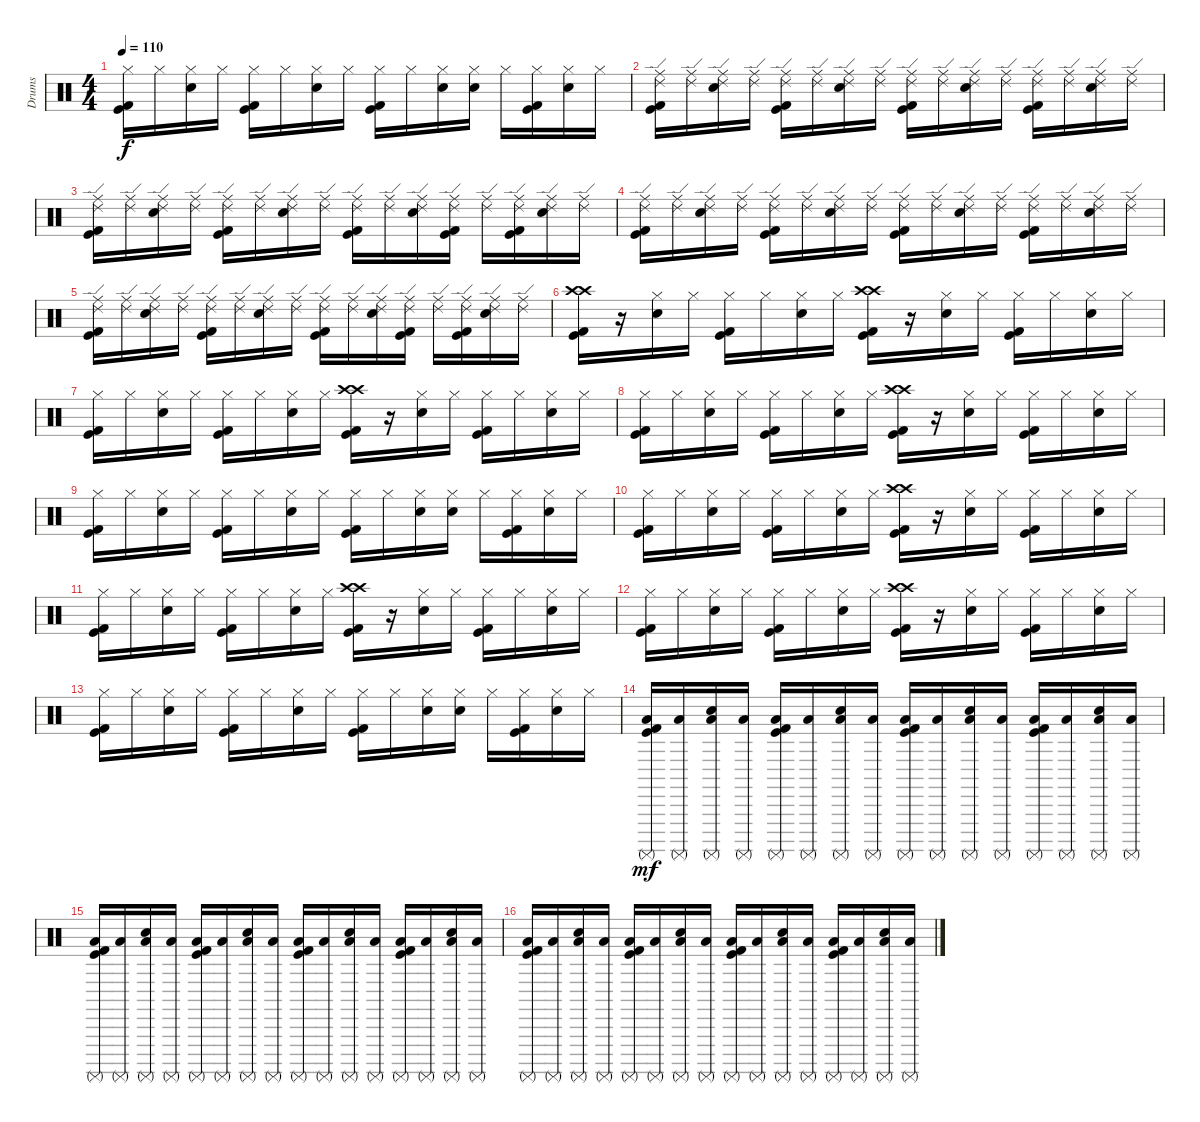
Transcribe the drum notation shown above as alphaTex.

\track ("Drums" "Drums") {instrument percussion}
\staff {score}
\articulation defaults
\ts (4 4)
\tempo 110
\clef neutral
\ks c
("Hi-Hat (closed)" "Kick (hit) 2" "Kick (hit)").16{dy f} "Hi-Hat (closed)".16 ("Hi-Hat (closed)" "Snare (hit) 2").16 "Hi-Hat (closed)".16 ("Hi-Hat (closed)" "Kick (hit) 2" "Kick (hit)").16 "Hi-Hat (closed)".16 ("Hi-Hat (closed)" "Snare (hit) 2").16 "Hi-Hat (closed)".16 ("Hi-Hat (closed)" "Kick (hit) 2" "Kick (hit)").16 "Hi-Hat (closed)".16 ("Hi-Hat (closed)" "Snare (hit) 2").16 ("Hi-Hat (closed)" "Snare (hit) 2").16 "Hi-Hat (closed)".16 ("Hi-Hat (closed)" "Kick (hit) 2" "Kick (hit)").16 ("Hi-Hat (closed)" "Snare (hit) 2").16 "Hi-Hat (closed)".16 |
("Ride (middle)" "Ride (edge) 2" "Kick (hit) 2" "Kick (hit)").16 ("Ride (middle)" "Ride (edge) 2").16 ("Ride (middle)" "Ride (edge) 2" "Snare (hit) 2").16 ("Ride (middle)" "Ride (edge) 2").16 ("Ride (middle)" "Ride (edge) 2" "Kick (hit) 2" "Kick (hit)").16 ("Ride (middle)" "Ride (edge) 2").16 ("Ride (middle)" "Ride (edge) 2" "Snare (hit) 2").16 ("Ride (middle)" "Ride (edge) 2").16 ("Ride (middle)" "Ride (edge) 2" "Kick (hit) 2" "Kick (hit)").16 ("Ride (middle)" "Ride (edge) 2").16 ("Ride (middle)" "Ride (edge) 2" "Snare (hit) 2").16 ("Ride (middle)" "Ride (edge) 2").16 ("Ride (middle)" "Ride (edge) 2" "Kick (hit) 2" "Kick (hit)").16 ("Ride (middle)" "Ride (edge) 2").16 ("Ride (middle)" "Ride (edge) 2" "Snare (hit) 2").16 ("Ride (middle)" "Ride (edge) 2").16 |
("Ride (middle)" "Ride (edge) 2" "Kick (hit) 2" "Kick (hit)").16 ("Ride (middle)" "Ride (edge) 2").16 ("Ride (middle)" "Ride (edge) 2" "Snare (hit) 2").16 ("Ride (middle)" "Ride (edge) 2").16 ("Ride (middle)" "Ride (edge) 2" "Kick (hit) 2" "Kick (hit)").16 ("Ride (middle)" "Ride (edge) 2").16 ("Ride (middle)" "Ride (edge) 2" "Snare (hit) 2").16 ("Ride (middle)" "Ride (edge) 2").16 ("Ride (middle)" "Ride (edge) 2" "Kick (hit) 2" "Kick (hit)").16 ("Ride (middle)" "Ride (edge) 2").16 ("Ride (middle)" "Ride (edge) 2" "Snare (hit) 2").16 ("Ride (middle)" "Ride (edge) 2" "Kick (hit) 2" "Kick (hit)").16 ("Ride (middle)" "Ride (edge) 2").16 ("Ride (middle)" "Ride (edge) 2" "Kick (hit) 2" "Kick (hit)").16 ("Ride (middle)" "Ride (edge) 2" "Snare (hit) 2").16 ("Ride (middle)" "Ride (edge) 2").16 |
("Ride (middle)" "Ride (edge) 2" "Kick (hit) 2" "Kick (hit)").16 ("Ride (middle)" "Ride (edge) 2").16 ("Ride (middle)" "Ride (edge) 2" "Snare (hit) 2").16 ("Ride (middle)" "Ride (edge) 2").16 ("Ride (middle)" "Ride (edge) 2" "Kick (hit) 2" "Kick (hit)").16 ("Ride (middle)" "Ride (edge) 2").16 ("Ride (middle)" "Ride (edge) 2" "Snare (hit) 2").16 ("Ride (middle)" "Ride (edge) 2").16 ("Ride (middle)" "Ride (edge) 2" "Kick (hit) 2" "Kick (hit)").16 ("Ride (middle)" "Ride (edge) 2").16 ("Ride (middle)" "Ride (edge) 2" "Snare (hit) 2").16 ("Ride (middle)" "Ride (edge) 2").16 ("Ride (middle)" "Ride (edge) 2" "Kick (hit) 2" "Kick (hit)").16 ("Ride (middle)" "Ride (edge) 2").16 ("Ride (middle)" "Ride (edge) 2" "Snare (hit) 2").16 ("Ride (middle)" "Ride (edge) 2").16 |
("Ride (middle)" "Ride (edge) 2" "Kick (hit) 2" "Kick (hit)").16 ("Ride (middle)" "Ride (edge) 2").16 ("Ride (middle)" "Ride (edge) 2" "Snare (hit) 2").16 ("Ride (middle)" "Ride (edge) 2").16 ("Ride (middle)" "Ride (edge) 2" "Kick (hit) 2" "Kick (hit)").16 ("Ride (middle)" "Ride (edge) 2").16 ("Ride (middle)" "Ride (edge) 2" "Snare (hit) 2").16 ("Ride (middle)" "Ride (edge) 2").16 ("Ride (middle)" "Ride (edge) 2" "Kick (hit) 2" "Kick (hit)").16 ("Ride (middle)" "Ride (edge) 2").16 ("Ride (middle)" "Ride (edge) 2" "Snare (hit) 2").16 ("Ride (middle)" "Ride (edge) 2" "Kick (hit) 2" "Kick (hit)").16 ("Ride (middle)" "Ride (edge) 2").16 ("Ride (middle)" "Ride (edge) 2" "Kick (hit) 2" "Kick (hit)").16 ("Ride (middle)" "Ride (edge) 2" "Snare (hit) 2").16 ("Ride (middle)" "Ride (edge) 2").16 |
("Crash high (hit)" "Crash high (hit)" "Kick (hit) 2" "Kick (hit)").16 r.16 ("Hi-Hat (closed)" "Snare (hit) 2").16 "Hi-Hat (closed)".16 ("Hi-Hat (closed)" "Kick (hit) 2" "Kick (hit)").16 "Hi-Hat (closed)".16 ("Hi-Hat (closed)" "Snare (hit) 2").16 "Hi-Hat (closed)".16 ("Crash high (hit)" "Crash high (hit)" "Kick (hit) 2" "Kick (hit)").16 r.16 ("Hi-Hat (closed)" "Snare (hit) 2").16 "Hi-Hat (closed)".16 ("Hi-Hat (closed)" "Kick (hit) 2" "Kick (hit)").16 "Hi-Hat (closed)".16 ("Hi-Hat (closed)" "Snare (hit) 2").16 "Hi-Hat (closed)".16 |
("Hi-Hat (closed)" "Kick (hit) 2" "Kick (hit)").16 "Hi-Hat (closed)".16 ("Hi-Hat (closed)" "Snare (hit) 2").16 "Hi-Hat (closed)".16 ("Hi-Hat (closed)" "Kick (hit) 2" "Kick (hit)").16 "Hi-Hat (closed)".16 ("Hi-Hat (closed)" "Snare (hit) 2").16 "Hi-Hat (closed)".16 ("Crash high (hit)" "Crash high (hit)" "Kick (hit) 2" "Kick (hit)").16 r.16 ("Hi-Hat (closed)" "Snare (hit) 2").16 "Hi-Hat (closed)".16 ("Hi-Hat (closed)" "Kick (hit) 2" "Kick (hit)").16 "Hi-Hat (closed)".16 ("Hi-Hat (closed)" "Snare (hit) 2").16 "Hi-Hat (closed)".16 |
("Hi-Hat (closed)" "Kick (hit) 2" "Kick (hit)").16 "Hi-Hat (closed)".16 ("Hi-Hat (closed)" "Snare (hit) 2").16 "Hi-Hat (closed)".16 ("Hi-Hat (closed)" "Kick (hit) 2" "Kick (hit)").16 "Hi-Hat (closed)".16 ("Hi-Hat (closed)" "Snare (hit) 2").16 "Hi-Hat (closed)".16 ("Crash high (hit)" "Crash high (hit)" "Kick (hit) 2" "Kick (hit)").16 r.16 ("Hi-Hat (closed)" "Snare (hit) 2").16 "Hi-Hat (closed)".16 ("Hi-Hat (closed)" "Kick (hit) 2" "Kick (hit)").16 "Hi-Hat (closed)".16 ("Hi-Hat (closed)" "Snare (hit) 2").16 "Hi-Hat (closed)".16 |
("Hi-Hat (closed)" "Kick (hit) 2" "Kick (hit)").16 "Hi-Hat (closed)".16 ("Hi-Hat (closed)" "Snare (hit) 2").16 "Hi-Hat (closed)".16 ("Hi-Hat (closed)" "Kick (hit) 2" "Kick (hit)").16 "Hi-Hat (closed)".16 ("Hi-Hat (closed)" "Snare (hit) 2").16 "Hi-Hat (closed)".16 ("Hi-Hat (closed)" "Kick (hit) 2" "Kick (hit)").16 "Hi-Hat (closed)".16 ("Hi-Hat (closed)" "Snare (hit) 2").16 ("Hi-Hat (closed)" "Snare (hit) 2").16 "Hi-Hat (closed)".16 ("Hi-Hat (closed)" "Kick (hit) 2" "Kick (hit)").16 ("Hi-Hat (closed)" "Snare (hit) 2").16 "Hi-Hat (closed)".16 |
("Hi-Hat (closed)" "Kick (hit) 2" "Kick (hit)").16 "Hi-Hat (closed)".16 ("Hi-Hat (closed)" "Snare (hit) 2").16 "Hi-Hat (closed)".16 ("Hi-Hat (closed)" "Kick (hit) 2" "Kick (hit)").16 "Hi-Hat (closed)".16 ("Hi-Hat (closed)" "Snare (hit) 2").16 "Hi-Hat (closed)".16 ("Crash high (hit)" "Crash high (hit)" "Kick (hit) 2" "Kick (hit)").16 r.16 ("Hi-Hat (closed)" "Snare (hit) 2").16 "Hi-Hat (closed)".16 ("Hi-Hat (closed)" "Kick (hit) 2" "Kick (hit)").16 "Hi-Hat (closed)".16 ("Hi-Hat (closed)" "Snare (hit) 2").16 "Hi-Hat (closed)".16 |
("Hi-Hat (closed)" "Kick (hit) 2" "Kick (hit)").16 "Hi-Hat (closed)".16 ("Hi-Hat (closed)" "Snare (hit) 2").16 "Hi-Hat (closed)".16 ("Hi-Hat (closed)" "Kick (hit) 2" "Kick (hit)").16 "Hi-Hat (closed)".16 ("Hi-Hat (closed)" "Snare (hit) 2").16 "Hi-Hat (closed)".16 ("Crash high (hit)" "Crash high (hit)" "Kick (hit) 2" "Kick (hit)").16 r.16 ("Hi-Hat (closed)" "Snare (hit) 2").16 "Hi-Hat (closed)".16 ("Hi-Hat (closed)" "Kick (hit) 2" "Kick (hit)").16 "Hi-Hat (closed)".16 ("Hi-Hat (closed)" "Snare (hit) 2").16 "Hi-Hat (closed)".16 |
("Hi-Hat (closed)" "Kick (hit) 2" "Kick (hit)").16 "Hi-Hat (closed)".16 ("Hi-Hat (closed)" "Snare (hit) 2").16 "Hi-Hat (closed)".16 ("Hi-Hat (closed)" "Kick (hit) 2" "Kick (hit)").16 "Hi-Hat (closed)".16 ("Hi-Hat (closed)" "Snare (hit) 2").16 "Hi-Hat (closed)".16 ("Crash high (hit)" "Crash high (hit)" "Kick (hit) 2" "Kick (hit)").16 r.16 ("Hi-Hat (closed)" "Snare (hit) 2").16 "Hi-Hat (closed)".16 ("Hi-Hat (closed)" "Kick (hit) 2" "Kick (hit)").16 "Hi-Hat (closed)".16 ("Hi-Hat (closed)" "Snare (hit) 2").16 "Hi-Hat (closed)".16 |
("Hi-Hat (closed)" "Kick (hit) 2" "Kick (hit)").16 "Hi-Hat (closed)".16 ("Hi-Hat (closed)" "Snare (hit) 2").16 "Hi-Hat (closed)".16 ("Hi-Hat (closed)" "Kick (hit) 2" "Kick (hit)").16 "Hi-Hat (closed)".16 ("Hi-Hat (closed)" "Snare (hit) 2").16 "Hi-Hat (closed)".16 ("Hi-Hat (closed)" "Kick (hit) 2" "Kick (hit)").16 "Hi-Hat (closed)".16 ("Hi-Hat (closed)" "Snare (hit) 2").16 ("Hi-Hat (closed)" "Snare (hit) 2").16 "Hi-Hat (closed)".16 ("Hi-Hat (closed)" "Kick (hit) 2" "Kick (hit)").16 ("Hi-Hat (closed)" "Snare (hit) 2").16 "Hi-Hat (closed)".16 |
("Surdo (mute)" "Low Floor Tom (hit)" "Kick (hit) 2" "Kick (hit)").16{dy mf} ("Surdo (mute)" "Low Floor Tom (hit)").16 ("Surdo (mute)" "Low Floor Tom (hit)" "Snare (hit) 2").16 ("Surdo (mute)" "Low Floor Tom (hit)").16 ("Surdo (mute)" "Low Floor Tom (hit)" "Kick (hit) 2" "Kick (hit)").16 ("Surdo (mute)" "Low Floor Tom (hit)").16 ("Surdo (mute)" "Low Floor Tom (hit)" "Snare (hit) 2").16 ("Surdo (mute)" "Low Floor Tom (hit)").16 ("Surdo (mute)" "Low Floor Tom (hit)" "Kick (hit) 2" "Kick (hit)").16 ("Surdo (mute)" "Low Floor Tom (hit)").16 ("Surdo (mute)" "Low Floor Tom (hit)" "Snare (hit) 2").16 ("Surdo (mute)" "Low Floor Tom (hit)").16 ("Surdo (mute)" "Low Floor Tom (hit)" "Kick (hit) 2" "Kick (hit)").16 ("Surdo (mute)" "Low Floor Tom (hit)").16 ("Surdo (mute)" "Low Floor Tom (hit)" "Snare (hit) 2").16 ("Surdo (mute)" "Low Floor Tom (hit)").16 |
("Surdo (mute)" "Low Floor Tom (hit)" "Kick (hit) 2" "Kick (hit)").16 ("Surdo (mute)" "Low Floor Tom (hit)").16 ("Surdo (mute)" "Low Floor Tom (hit)" "Snare (hit) 2").16 ("Surdo (mute)" "Low Floor Tom (hit)").16 ("Surdo (mute)" "Low Floor Tom (hit)" "Kick (hit) 2" "Kick (hit)").16 ("Surdo (mute)" "Low Floor Tom (hit)").16 ("Surdo (mute)" "Low Floor Tom (hit)" "Snare (hit) 2").16 ("Surdo (mute)" "Low Floor Tom (hit)").16 ("Surdo (mute)" "Low Floor Tom (hit)" "Kick (hit) 2" "Kick (hit)").16 ("Surdo (mute)" "Low Floor Tom (hit)").16 ("Surdo (mute)" "Low Floor Tom (hit)" "Snare (hit) 2").16 ("Surdo (mute)" "Low Floor Tom (hit)").16 ("Surdo (mute)" "Low Floor Tom (hit)" "Kick (hit) 2" "Kick (hit)").16 ("Surdo (mute)" "Low Floor Tom (hit)").16 ("Surdo (mute)" "Low Floor Tom (hit)" "Snare (hit) 2").16 ("Surdo (mute)" "Low Floor Tom (hit)").16 |
("Surdo (mute)" "Low Floor Tom (hit)" "Kick (hit) 2" "Kick (hit)").16 ("Surdo (mute)" "Low Floor Tom (hit)").16 ("Surdo (mute)" "Low Floor Tom (hit)" "Snare (hit) 2").16 ("Surdo (mute)" "Low Floor Tom (hit)").16 ("Surdo (mute)" "Low Floor Tom (hit)" "Kick (hit) 2" "Kick (hit)").16 ("Surdo (mute)" "Low Floor Tom (hit)").16 ("Surdo (mute)" "Low Floor Tom (hit)" "Snare (hit) 2").16 ("Surdo (mute)" "Low Floor Tom (hit)").16 ("Surdo (mute)" "Low Floor Tom (hit)" "Kick (hit) 2" "Kick (hit)").16 ("Surdo (mute)" "Low Floor Tom (hit)").16 ("Surdo (mute)" "Low Floor Tom (hit)" "Snare (hit) 2").16 ("Surdo (mute)" "Low Floor Tom (hit)").16 ("Surdo (mute)" "Low Floor Tom (hit)" "Kick (hit) 2" "Kick (hit)").16 ("Surdo (mute)" "Low Floor Tom (hit)").16 ("Surdo (mute)" "Low Floor Tom (hit)" "Snare (hit) 2").16 ("Surdo (mute)" "Low Floor Tom (hit)").16
